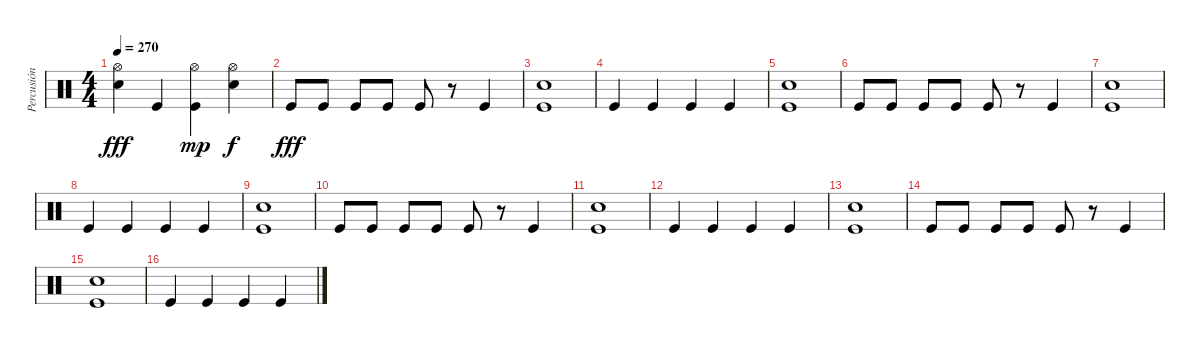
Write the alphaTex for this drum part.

\track ("Percusión" "Percusión") {instrument percussion}
\staff {score}
\articulation defaults
\ts (4 4)
\tempo 270
\clef neutral
\ks c
("Hi-Hat (open)" "Snare (hit) 2").4{dy fff} "Kick (hit)".4 ("Hi-Hat (open)" "Kick (hit)").4{dy mp} ("Hi-Hat (open)" "Snare (hit) 2").4{dy f} |
"Kick (hit)".8{dy fff} "Kick (hit)".8 "Kick (hit)".8 "Kick (hit)".8 "Kick (hit)".8 r.8 "Kick (hit)".4 |
("Snare (hit) 2" "Kick (hit)").1 |
"Kick (hit)".4 "Kick (hit)".4 "Kick (hit)".4 "Kick (hit)".4 |
("Snare (hit) 2" "Kick (hit)").1 |
"Kick (hit)".8 "Kick (hit)".8 "Kick (hit)".8 "Kick (hit)".8 "Kick (hit)".8 r.8 "Kick (hit)".4 |
("Snare (hit) 2" "Kick (hit)").1 |
"Kick (hit)".4 "Kick (hit)".4 "Kick (hit)".4 "Kick (hit)".4 |
("Snare (hit) 2" "Kick (hit)").1 |
"Kick (hit)".8 "Kick (hit)".8 "Kick (hit)".8 "Kick (hit)".8 "Kick (hit)".8 r.8 "Kick (hit)".4 |
("Snare (hit) 2" "Kick (hit)").1 |
"Kick (hit)".4 "Kick (hit)".4 "Kick (hit)".4 "Kick (hit)".4 |
("Snare (hit) 2" "Kick (hit)").1 |
"Kick (hit)".8 "Kick (hit)".8 "Kick (hit)".8 "Kick (hit)".8 "Kick (hit)".8 r.8 "Kick (hit)".4 |
("Snare (hit) 2" "Kick (hit)").1 |
"Kick (hit)".4 "Kick (hit)".4 "Kick (hit)".4 "Kick (hit)".4
